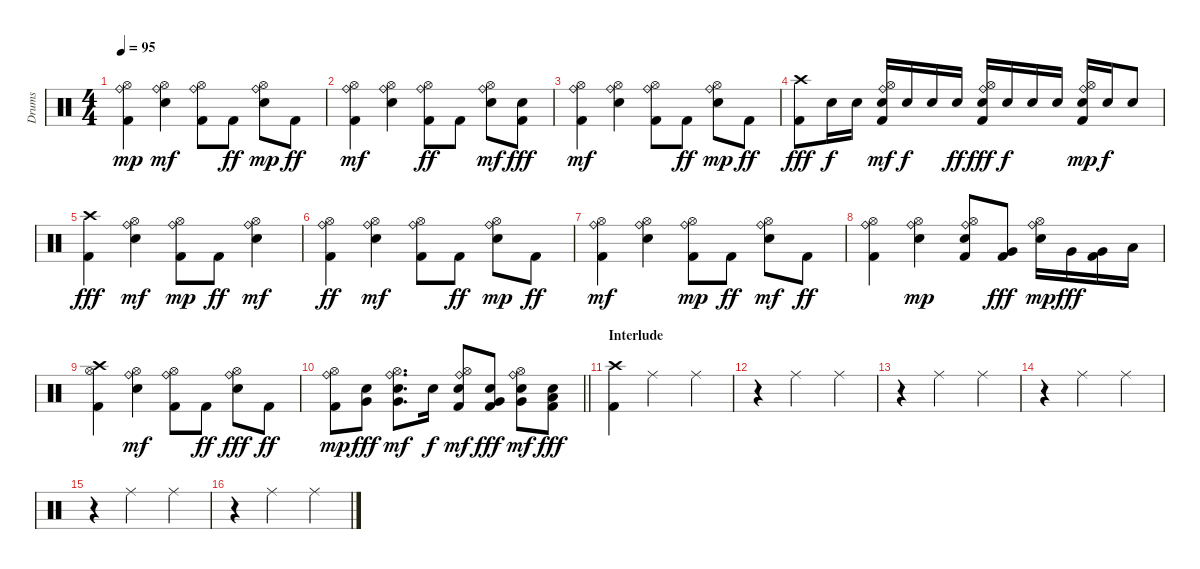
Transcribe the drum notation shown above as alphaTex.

\track ("Drums" "Drums") {instrument percussion}
\staff {score}
\articulation defaults
\ts (4 4)
\tempo 95
\clef neutral
\ks c
("Kick (hit) 2" "Hi-Hat (open)" "Ride (bell)").4{dy mp} ("Electric Snare (hit)" "Hi-Hat (open)" "Ride (bell)").4{dy mf} ("Kick (hit) 2" "Hi-Hat (open)" "Ride (bell)").8 "Kick (hit) 2".8{dy ff} ("Electric Snare (hit)" "Hi-Hat (open)" "Ride (bell)").8{dy mp} "Kick (hit) 2".8{dy ff} |
("Kick (hit) 2" "Hi-Hat (open)" "Ride (bell)").4{dy mf} ("Electric Snare (hit)" "Hi-Hat (open)" "Ride (bell)").4 ("Kick (hit) 2" "Hi-Hat (open)" "Ride (bell)").8{dy ff} "Kick (hit) 2".8 ("Electric Snare (hit)" "Hi-Hat (open)" "Ride (bell)").8{dy mf} ("Kick (hit) 2" "Electric Snare (hit)").8{dy fff} |
("Kick (hit) 2" "Hi-Hat (open)" "Ride (bell)").4{dy mf} ("Electric Snare (hit)" "Hi-Hat (open)" "Ride (bell)").4 ("Kick (hit) 2" "Hi-Hat (open)" "Ride (bell)").8 "Kick (hit) 2".8{dy ff} ("Electric Snare (hit)" "Hi-Hat (open)" "Ride (bell)").8{dy mp} "Kick (hit) 2".8{dy ff} |
("Kick (hit) 2" "Crash high (hit)").8{dy fff} "Electric Snare (hit)".16{dy f} "Electric Snare (hit)".16 ("Kick (hit) 2" "Electric Snare (hit)" "Hi-Hat (open)" "Ride (bell)").16{dy mf} "Electric Snare (hit)".16{dy f} "Electric Snare (hit)".16 "Electric Snare (hit)".16{dy ff} ("Kick (hit) 2" "Electric Snare (hit)" "Hi-Hat (open)" "Ride (bell)").16{dy fff} "Electric Snare (hit)".16{dy f} "Electric Snare (hit)".16 "Electric Snare (hit)".16 ("Kick (hit) 2" "Electric Snare (hit)" "Hi-Hat (open)" "Ride (bell)").16{dy mp} "Electric Snare (hit)".16{dy f} "Electric Snare (hit)".8 |
("Kick (hit) 2" "Crash high (hit)").4{dy fff} ("Electric Snare (hit)" "Hi-Hat (open)" "Ride (bell)").4{dy mf} ("Kick (hit) 2" "Hi-Hat (open)" "Ride (bell)").8{dy mp} "Kick (hit) 2".8{dy ff} ("Electric Snare (hit)" "Hi-Hat (open)" "Ride (bell)").4{dy mf} |
("Kick (hit) 2" "Hi-Hat (open)" "Ride (bell)").4{dy ff} ("Electric Snare (hit)" "Hi-Hat (open)" "Ride (bell)").4{dy mf} ("Kick (hit) 2" "Hi-Hat (open)" "Ride (bell)").8 "Kick (hit) 2".8{dy ff} ("Electric Snare (hit)" "Hi-Hat (open)" "Ride (bell)").8{dy mp} "Kick (hit) 2".8{dy ff} |
("Kick (hit) 2" "Hi-Hat (open)" "Ride (bell)").4{dy mf} ("Electric Snare (hit)" "Hi-Hat (open)" "Ride (bell)").4 ("Kick (hit) 2" "Hi-Hat (open)" "Ride (bell)").8{dy mp} "Kick (hit) 2".8{dy ff} ("Electric Snare (hit)" "Hi-Hat (open)" "Ride (bell)").8{dy mf} "Kick (hit) 2".8{dy ff} |
("Kick (hit) 2" "Hi-Hat (open)" "Ride (bell)").4 ("Electric Snare (hit)" "Hi-Hat (open)" "Ride (bell)").4{dy mp} ("Kick (hit) 2" "Electric Snare (hit)" "Hi-Hat (open)" "Ride (bell)").8 ("Kick (hit) 2" "Very Low Tom (hit)").8{dy fff} ("Electric Snare (hit)" "Hi-Hat (open)" "Ride (bell)").16{dy mp} "Very Low Tom (hit)".16{dy fff} ("Kick (hit) 2" "Very Low Tom (hit)").16 "Low Floor Tom (hit)".16 |
("Kick (hit) 2" "Hi-Hat (open)" "Crash high (hit)").4 ("Electric Snare (hit)" "Hi-Hat (open)" "Ride (bell)").4{dy mf} ("Kick (hit) 2" "Hi-Hat (open)" "Ride (bell)").8 "Kick (hit) 2".8{dy ff} ("Electric Snare (hit)" "Hi-Hat (open)" "Ride (bell)").8{dy fff} "Kick (hit) 2".8{dy ff} |
\barLineRight lightlight
("Kick (hit) 2" "Hi-Hat (open)" "Ride (bell)").8{dy mp} ("Electric Snare (hit)" "Very Low Tom (hit)").8{dy fff} ("Electric Snare (hit)" "Very Low Tom (hit)" "Hi-Hat (open)" "Ride (bell)").8{d dy mf} "Electric Snare (hit)".16{dy f} ("Kick (hit) 2" "Electric Snare (hit)" "Hi-Hat (open)" "Ride (bell)").8{dy mf} ("Kick (hit) 2" "Electric Snare (hit)" "Very Low Tom (hit)").8{dy fff} ("Electric Snare (hit)" "Very Low Tom (hit)" "Hi-Hat (open)" "Ride (bell)").8{dy mf} ("Kick (hit) 2" "Electric Snare (hit)" "Low Floor Tom (hit)").8{dy fff} |
\section ("" "Interlude")
("Kick (hit) 2" "Crash high (hit)").4 "Ride (middle)".2 "Ride (middle)".4 |
r.4 "Ride (middle)".2 "Ride (middle)".4 |
r.4 "Ride (middle)".2 "Ride (middle)".4 |
r.4 "Ride (middle)".2 "Ride (middle)".4 |
r.4 "Ride (middle)".2 "Ride (middle)".4 |
r.4 "Ride (middle)".2 "Ride (middle)".4
